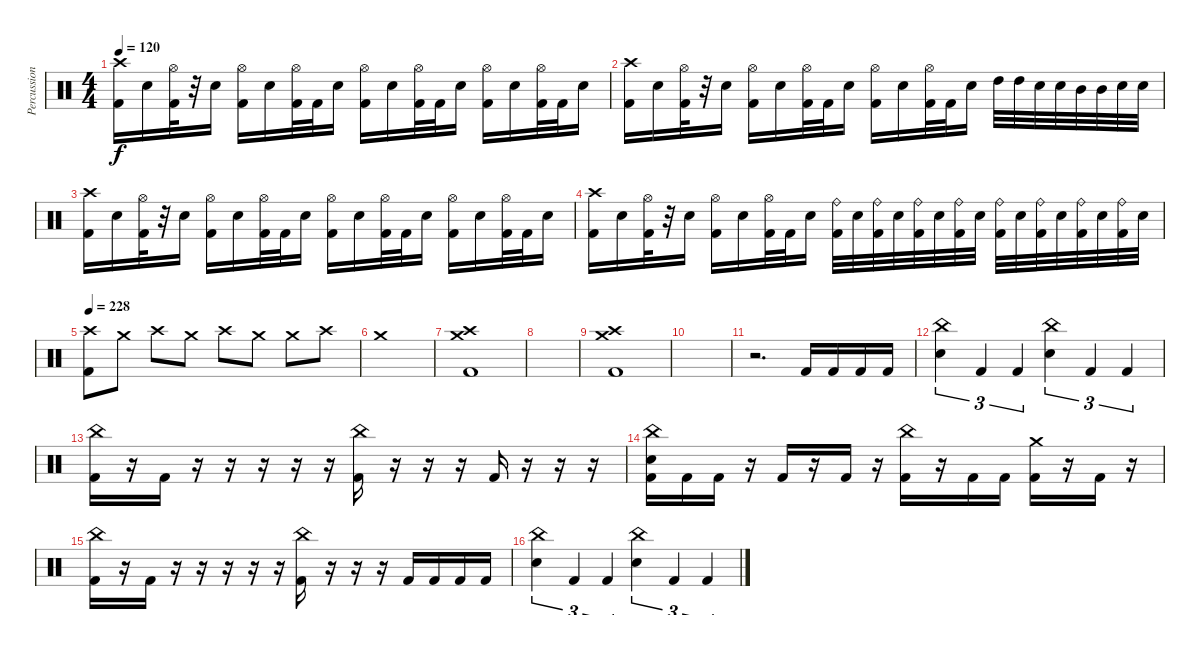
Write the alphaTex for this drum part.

\track ("Percussion" "Percussion") {instrument percussion}
\staff {score}
\articulation defaults
\ts (4 4)
\tempo 120
\clef neutral
\ks c
("Crash high (hit)" "Kick (hit) 2").16{dy f} "Electric Snare (hit)".16 ("Hi-Hat (open)" "Kick (hit) 2").32 r.32 "Electric Snare (hit)".16 ("Hi-Hat (open)" "Kick (hit) 2").16 "Electric Snare (hit)".16 ("Hi-Hat (open)" "Kick (hit) 2").32 "Kick (hit) 2".32 "Electric Snare (hit)".16 ("Hi-Hat (open)" "Kick (hit) 2").16 "Electric Snare (hit)".16 ("Hi-Hat (open)" "Kick (hit) 2").32 "Kick (hit) 2".32 "Electric Snare (hit)".16 ("Hi-Hat (open)" "Kick (hit) 2").16 "Electric Snare (hit)".16 ("Hi-Hat (open)" "Kick (hit) 2").32 "Kick (hit) 2".32 "Electric Snare (hit)".16 |
("Crash high (hit)" "Kick (hit) 2").16 "Electric Snare (hit)".16 ("Hi-Hat (open)" "Kick (hit) 2").32 r.32 "Electric Snare (hit)".16 ("Hi-Hat (open)" "Kick (hit) 2").16 "Electric Snare (hit)".16 ("Hi-Hat (open)" "Kick (hit) 2").32 "Kick (hit) 2".32 "Electric Snare (hit)".16 ("Hi-Hat (open)" "Kick (hit) 2").16 "Electric Snare (hit)".16 ("Hi-Hat (open)" "Kick (hit) 2").32 "Kick (hit) 2".32 "Electric Snare (hit)".16 "High Tom (hit)".32 "High Tom (hit)".32 "Electric Snare (hit)".32 "Electric Snare (hit)".32 "Mid Tom (hit)".32 "Mid Tom (hit)".32 "Electric Snare (hit)".32 "Electric Snare (hit)".32 |
("Crash high (hit)" "Kick (hit) 2").16 "Electric Snare (hit)".16 ("Hi-Hat (open)" "Kick (hit) 2").32 r.32 "Electric Snare (hit)".16 ("Hi-Hat (open)" "Kick (hit) 2").16 "Electric Snare (hit)".16 ("Hi-Hat (open)" "Kick (hit) 2").32 "Kick (hit) 2".32 "Electric Snare (hit)".16 ("Hi-Hat (open)" "Kick (hit) 2").16 "Electric Snare (hit)".16 ("Hi-Hat (open)" "Kick (hit) 2").32 "Kick (hit) 2".32 "Electric Snare (hit)".16 ("Hi-Hat (open)" "Kick (hit) 2").16 "Electric Snare (hit)".16 ("Hi-Hat (open)" "Kick (hit) 2").32 "Kick (hit) 2".32 "Electric Snare (hit)".16 |
("Crash high (hit)" "Kick (hit) 2").16 "Electric Snare (hit)".16 ("Hi-Hat (open)" "Kick (hit) 2").32 r.32 "Electric Snare (hit)".16 ("Hi-Hat (open)" "Kick (hit) 2").16 "Electric Snare (hit)".16 ("Hi-Hat (open)" "Kick (hit) 2").32 "Kick (hit) 2".32 "Electric Snare (hit)".16 ("Ride (bell)" "Kick (hit) 2").32 "Electric Snare (hit)".32 ("Ride (bell)" "Kick (hit) 2").32 "Electric Snare (hit)".32 ("Ride (bell)" "Kick (hit) 2").32 "Electric Snare (hit)".32 ("Ride (bell)" "Kick (hit) 2").32 "Electric Snare (hit)".32 ("Ride (bell)" "Kick (hit) 2").32 "Electric Snare (hit)".32 ("Ride (bell)" "Kick (hit) 2").32 "Electric Snare (hit)".32 ("Ride (bell)" "Kick (hit) 2").32 "Electric Snare (hit)".32 ("Ride (bell)" "Kick (hit) 2").32 "Electric Snare (hit)".32 |
\tempo 228
("Crash high (hit)" "Kick (hit) 2").8 "Crash medium (hit)".8 "Crash high (hit)".8 "Crash medium (hit)".8 "Crash high (hit)".8 "Crash medium (hit)".8 "Crash medium (hit)".8 "Crash high (hit)".8 |
"Crash medium (hit)".1 |
("Crash high (hit)" "Crash medium (hit)" "Kick (hit) 2").1 |
|
("Crash high (hit)" "Crash medium (hit)" "Kick (hit) 2").1 |
|
r.2{d} "Kick (hit) 2".16 "Kick (hit) 2".16 "Kick (hit) 2".16 "Kick (hit) 2".16 |
("China (hit)" "Electric Snare (hit)").4{tu (3 2)} "Kick (hit) 2".4{tu (3 2)} "Kick (hit) 2".4{tu (3 2)} ("China (hit)" "Electric Snare (hit)").4{tu (3 2)} "Kick (hit) 2".4{tu (3 2)} "Kick (hit) 2".4{tu (3 2)} |
("China (hit)" "Kick (hit) 2").16 r.16 "Kick (hit) 2".16 r.16 r.16 r.16 r.16 r.16 ("China (hit)" "Kick (hit) 2").16 r.16 r.16 r.16 "Kick (hit) 2".16 r.16 r.16 r.16 |
("China (hit)" "Electric Snare (hit)" "Kick (hit) 2").16 "Kick (hit) 2".16 "Kick (hit) 2".16 r.16 "Kick (hit) 2".16 r.16 "Kick (hit) 2".16 r.16 ("China (hit)" "Kick (hit) 2").16 r.16 "Kick (hit) 2".16 "Kick (hit) 2".16 ("Crash medium (hit)" "Kick (hit) 2").16 r.16 "Kick (hit) 2".16 r.16 |
("China (hit)" "Kick (hit) 2").16 r.16 "Kick (hit) 2".16 r.16 r.16 r.16 r.16 r.16 ("China (hit)" "Kick (hit) 2").16 r.16 r.16 r.16 "Kick (hit) 2".16 "Kick (hit) 2".16 "Kick (hit) 2".16 "Kick (hit) 2".16 |
("China (hit)" "Electric Snare (hit)").4{tu (3 2)} "Kick (hit) 2".4{tu (3 2)} "Kick (hit) 2".4{tu (3 2)} ("China (hit)" "Electric Snare (hit)").4{tu (3 2)} "Kick (hit) 2".4{tu (3 2)} "Kick (hit) 2".4{tu (3 2)}
